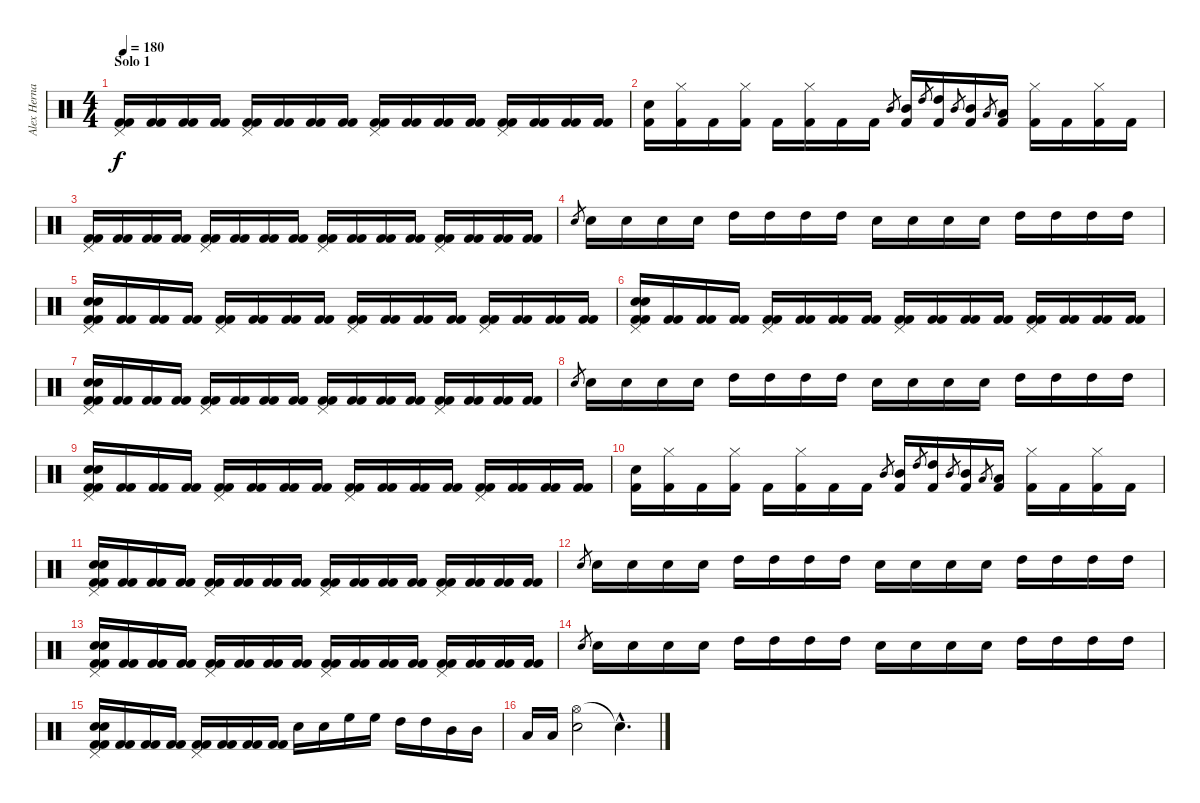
\track ("Alex Hernandez" "Alex Herna") {instrument percussion}
\staff {score}
\articulation defaults
\ts (4 4)
\section ("" "Solo 1")
\tempo 180
\clef neutral
\ks c
("Pedal Hi-Hat (hit)" "Kick (hit) 2" "Kick (hit) 2").16{dy f} ("Kick (hit) 2" "Kick (hit) 2").16 ("Kick (hit) 2" "Kick (hit) 2").16 ("Kick (hit) 2" "Kick (hit) 2").16 ("Pedal Hi-Hat (hit)" "Kick (hit) 2" "Kick (hit) 2").16 ("Kick (hit) 2" "Kick (hit) 2").16 ("Kick (hit) 2" "Kick (hit) 2").16 ("Kick (hit) 2" "Kick (hit) 2").16 ("Pedal Hi-Hat (hit)" "Kick (hit) 2" "Kick (hit) 2").16 ("Kick (hit) 2" "Kick (hit) 2").16 ("Kick (hit) 2" "Kick (hit) 2").16 ("Kick (hit) 2" "Kick (hit) 2").16 ("Pedal Hi-Hat (hit)" "Kick (hit) 2" "Kick (hit) 2").16 ("Kick (hit) 2" "Kick (hit) 2").16 ("Kick (hit) 2" "Kick (hit) 2").16 ("Kick (hit) 2" "Kick (hit) 2").16 |
("Snare (hit) 2" "Kick (hit) 2").16 ("Hi-Hat (closed)" "Kick (hit) 2").16 "Kick (hit) 2".16 ("Hi-Hat (closed)" "Kick (hit) 2").16 "Kick (hit) 2".16 ("Hi-Hat (closed)" "Kick (hit) 2").16 "Kick (hit) 2".16 "Kick (hit) 2".16 "Mid Tom (hit)".8{gr} ("Mid Tom (hit)" "Kick (hit) 2").16 "High Tom (hit)".8{gr} ("High Tom (hit)" "Kick (hit) 2").16 "Mid Tom (hit)".8{gr} ("Mid Tom (hit)" "Kick (hit) 2").16 "Low Tom (hit)".8{gr} ("Low Tom (hit)" "Kick (hit) 2").16 ("Hi-Hat (closed)" "Kick (hit) 2").16 "Kick (hit) 2".16 ("Hi-Hat (closed)" "Kick (hit) 2").16 "Kick (hit) 2".16 |
("Pedal Hi-Hat (hit)" "Kick (hit) 2" "Kick (hit) 2").16 ("Kick (hit) 2" "Kick (hit) 2").16 ("Kick (hit) 2" "Kick (hit) 2").16 ("Kick (hit) 2" "Kick (hit) 2").16 ("Pedal Hi-Hat (hit)" "Kick (hit) 2" "Kick (hit) 2").16 ("Kick (hit) 2" "Kick (hit) 2").16 ("Kick (hit) 2" "Kick (hit) 2").16 ("Kick (hit) 2" "Kick (hit) 2").16 ("Pedal Hi-Hat (hit)" "Kick (hit) 2" "Kick (hit) 2").16 ("Kick (hit) 2" "Kick (hit) 2").16 ("Kick (hit) 2" "Kick (hit) 2").16 ("Kick (hit) 2" "Kick (hit) 2").16 ("Pedal Hi-Hat (hit)" "Kick (hit) 2" "Kick (hit) 2").16 ("Kick (hit) 2" "Kick (hit) 2").16 ("Kick (hit) 2" "Kick (hit) 2").16 ("Kick (hit) 2" "Kick (hit) 2").16 |
"Snare (hit) 2".8{gr} "Snare (hit) 2".16 "Snare (hit) 2".16 "Snare (hit) 2".16 "Snare (hit) 2".16 "High Tom (hit)".16 "High Tom (hit)".16 "High Tom (hit)".16 "High Tom (hit)".16 "Snare (hit) 2".16 "Snare (hit) 2".16 "Snare (hit) 2".16 "Snare (hit) 2".16 "High Tom (hit)".16 "High Tom (hit)".16 "High Tom (hit)".16 "High Tom (hit)".16 |
("Snare (hit) 2" "Snare (hit) 2" "Pedal Hi-Hat (hit)" "Kick (hit) 2" "Kick (hit) 2").16 ("Kick (hit) 2" "Kick (hit) 2").16 ("Kick (hit) 2" "Kick (hit) 2").16 ("Kick (hit) 2" "Kick (hit) 2").16 ("Pedal Hi-Hat (hit)" "Kick (hit) 2" "Kick (hit) 2").16 ("Kick (hit) 2" "Kick (hit) 2").16 ("Kick (hit) 2" "Kick (hit) 2").16 ("Kick (hit) 2" "Kick (hit) 2").16 ("Pedal Hi-Hat (hit)" "Kick (hit) 2" "Kick (hit) 2").16 ("Kick (hit) 2" "Kick (hit) 2").16 ("Kick (hit) 2" "Kick (hit) 2").16 ("Kick (hit) 2" "Kick (hit) 2").16 ("Pedal Hi-Hat (hit)" "Kick (hit) 2" "Kick (hit) 2").16 ("Kick (hit) 2" "Kick (hit) 2").16 ("Kick (hit) 2" "Kick (hit) 2").16 ("Kick (hit) 2" "Kick (hit) 2").16 |
("Snare (hit) 2" "Snare (hit) 2" "Pedal Hi-Hat (hit)" "Kick (hit) 2" "Kick (hit) 2").16 ("Kick (hit) 2" "Kick (hit) 2").16 ("Kick (hit) 2" "Kick (hit) 2").16 ("Kick (hit) 2" "Kick (hit) 2").16 ("Pedal Hi-Hat (hit)" "Kick (hit) 2" "Kick (hit) 2").16 ("Kick (hit) 2" "Kick (hit) 2").16 ("Kick (hit) 2" "Kick (hit) 2").16 ("Kick (hit) 2" "Kick (hit) 2").16 ("Pedal Hi-Hat (hit)" "Kick (hit) 2" "Kick (hit) 2").16 ("Kick (hit) 2" "Kick (hit) 2").16 ("Kick (hit) 2" "Kick (hit) 2").16 ("Kick (hit) 2" "Kick (hit) 2").16 ("Pedal Hi-Hat (hit)" "Kick (hit) 2" "Kick (hit) 2").16 ("Kick (hit) 2" "Kick (hit) 2").16 ("Kick (hit) 2" "Kick (hit) 2").16 ("Kick (hit) 2" "Kick (hit) 2").16 |
("Snare (hit) 2" "Snare (hit) 2" "Pedal Hi-Hat (hit)" "Kick (hit) 2" "Kick (hit) 2").16 ("Kick (hit) 2" "Kick (hit) 2").16 ("Kick (hit) 2" "Kick (hit) 2").16 ("Kick (hit) 2" "Kick (hit) 2").16 ("Pedal Hi-Hat (hit)" "Kick (hit) 2" "Kick (hit) 2").16 ("Kick (hit) 2" "Kick (hit) 2").16 ("Kick (hit) 2" "Kick (hit) 2").16 ("Kick (hit) 2" "Kick (hit) 2").16 ("Pedal Hi-Hat (hit)" "Kick (hit) 2" "Kick (hit) 2").16 ("Kick (hit) 2" "Kick (hit) 2").16 ("Kick (hit) 2" "Kick (hit) 2").16 ("Kick (hit) 2" "Kick (hit) 2").16 ("Pedal Hi-Hat (hit)" "Kick (hit) 2" "Kick (hit) 2").16 ("Kick (hit) 2" "Kick (hit) 2").16 ("Kick (hit) 2" "Kick (hit) 2").16 ("Kick (hit) 2" "Kick (hit) 2").16 |
"Snare (hit) 2".8{gr} "Snare (hit) 2".16 "Snare (hit) 2".16 "Snare (hit) 2".16 "Snare (hit) 2".16 "High Tom (hit)".16 "High Tom (hit)".16 "High Tom (hit)".16 "High Tom (hit)".16 "Snare (hit) 2".16 "Snare (hit) 2".16 "Snare (hit) 2".16 "Snare (hit) 2".16 "High Tom (hit)".16 "High Tom (hit)".16 "High Tom (hit)".16 "High Tom (hit)".16 |
("Snare (hit) 2" "Snare (hit) 2" "Pedal Hi-Hat (hit)" "Kick (hit) 2" "Kick (hit) 2").16 ("Kick (hit) 2" "Kick (hit) 2").16 ("Kick (hit) 2" "Kick (hit) 2").16 ("Kick (hit) 2" "Kick (hit) 2").16 ("Pedal Hi-Hat (hit)" "Kick (hit) 2" "Kick (hit) 2").16 ("Kick (hit) 2" "Kick (hit) 2").16 ("Kick (hit) 2" "Kick (hit) 2").16 ("Kick (hit) 2" "Kick (hit) 2").16 ("Pedal Hi-Hat (hit)" "Kick (hit) 2" "Kick (hit) 2").16 ("Kick (hit) 2" "Kick (hit) 2").16 ("Kick (hit) 2" "Kick (hit) 2").16 ("Kick (hit) 2" "Kick (hit) 2").16 ("Pedal Hi-Hat (hit)" "Kick (hit) 2" "Kick (hit) 2").16 ("Kick (hit) 2" "Kick (hit) 2").16 ("Kick (hit) 2" "Kick (hit) 2").16 ("Kick (hit) 2" "Kick (hit) 2").16 |
("Snare (hit) 2" "Kick (hit) 2").16 ("Hi-Hat (closed)" "Kick (hit) 2").16 "Kick (hit) 2".16 ("Hi-Hat (closed)" "Kick (hit) 2").16 "Kick (hit) 2".16 ("Hi-Hat (closed)" "Kick (hit) 2").16 "Kick (hit) 2".16 "Kick (hit) 2".16 "Mid Tom (hit)".8{gr} ("Mid Tom (hit)" "Kick (hit) 2").16 "High Tom (hit)".8{gr} ("High Tom (hit)" "Kick (hit) 2").16 "Mid Tom (hit)".8{gr} ("Mid Tom (hit)" "Kick (hit) 2").16 "Low Tom (hit)".8{gr} ("Low Tom (hit)" "Kick (hit) 2").16 ("Hi-Hat (closed)" "Kick (hit) 2").16 "Kick (hit) 2".16 ("Hi-Hat (closed)" "Kick (hit) 2").16 "Kick (hit) 2".16 |
("Snare (hit) 2" "Snare (hit) 2" "Pedal Hi-Hat (hit)" "Kick (hit) 2" "Kick (hit) 2").16 ("Kick (hit) 2" "Kick (hit) 2").16 ("Kick (hit) 2" "Kick (hit) 2").16 ("Kick (hit) 2" "Kick (hit) 2").16 ("Pedal Hi-Hat (hit)" "Kick (hit) 2" "Kick (hit) 2").16 ("Kick (hit) 2" "Kick (hit) 2").16 ("Kick (hit) 2" "Kick (hit) 2").16 ("Kick (hit) 2" "Kick (hit) 2").16 ("Pedal Hi-Hat (hit)" "Kick (hit) 2" "Kick (hit) 2").16 ("Kick (hit) 2" "Kick (hit) 2").16 ("Kick (hit) 2" "Kick (hit) 2").16 ("Kick (hit) 2" "Kick (hit) 2").16 ("Pedal Hi-Hat (hit)" "Kick (hit) 2" "Kick (hit) 2").16 ("Kick (hit) 2" "Kick (hit) 2").16 ("Kick (hit) 2" "Kick (hit) 2").16 ("Kick (hit) 2" "Kick (hit) 2").16 |
"Snare (hit) 2".8{gr} "Snare (hit) 2".16 "Snare (hit) 2".16 "Snare (hit) 2".16 "Snare (hit) 2".16 "High Tom (hit)".16 "High Tom (hit)".16 "High Tom (hit)".16 "High Tom (hit)".16 "Snare (hit) 2".16 "Snare (hit) 2".16 "Snare (hit) 2".16 "Snare (hit) 2".16 "High Tom (hit)".16 "High Tom (hit)".16 "High Tom (hit)".16 "High Tom (hit)".16 |
("Snare (hit) 2" "Snare (hit) 2" "Pedal Hi-Hat (hit)" "Kick (hit) 2" "Kick (hit) 2").16 ("Kick (hit) 2" "Kick (hit) 2").16 ("Kick (hit) 2" "Kick (hit) 2").16 ("Kick (hit) 2" "Kick (hit) 2").16 ("Pedal Hi-Hat (hit)" "Kick (hit) 2" "Kick (hit) 2").16 ("Kick (hit) 2" "Kick (hit) 2").16 ("Kick (hit) 2" "Kick (hit) 2").16 ("Kick (hit) 2" "Kick (hit) 2").16 ("Pedal Hi-Hat (hit)" "Kick (hit) 2" "Kick (hit) 2").16 ("Kick (hit) 2" "Kick (hit) 2").16 ("Kick (hit) 2" "Kick (hit) 2").16 ("Kick (hit) 2" "Kick (hit) 2").16 ("Pedal Hi-Hat (hit)" "Kick (hit) 2" "Kick (hit) 2").16 ("Kick (hit) 2" "Kick (hit) 2").16 ("Kick (hit) 2" "Kick (hit) 2").16 ("Kick (hit) 2" "Kick (hit) 2").16 |
"Snare (hit) 2".8{gr} "Snare (hit) 2".16 "Snare (hit) 2".16 "Snare (hit) 2".16 "Snare (hit) 2".16 "High Tom (hit)".16 "High Tom (hit)".16 "High Tom (hit)".16 "High Tom (hit)".16 "Snare (hit) 2".16 "Snare (hit) 2".16 "Snare (hit) 2".16 "Snare (hit) 2".16 "High Tom (hit)".16 "High Tom (hit)".16 "High Tom (hit)".16 "High Tom (hit)".16 |
("Snare (hit) 2" "Snare (hit) 2" "Pedal Hi-Hat (hit)" "Kick (hit) 2" "Kick (hit) 2").16 ("Kick (hit) 2" "Kick (hit) 2").16 ("Kick (hit) 2" "Kick (hit) 2").16 ("Kick (hit) 2" "Kick (hit) 2").16 ("Pedal Hi-Hat (hit)" "Kick (hit) 2" "Kick (hit) 2").16 ("Kick (hit) 2" "Kick (hit) 2").16 ("Kick (hit) 2" "Kick (hit) 2").16 ("Kick (hit) 2" "Kick (hit) 2").16 "Electric Snare (hit)".16 "Electric Snare (hit)".16 "High Floor Tom (hit)".16 "High Floor Tom (hit)".16 "High Tom (hit)".16 "High Tom (hit)".16 "Mid Tom (hit)".16 "Mid Tom (hit)".16 |
"Low Tom (hit)".16 "Low Tom (hit)".16 ("Hi-Hat (open)" "Snare (hit) 2").2 "Snare (hit)"{hac t}.4{d}
